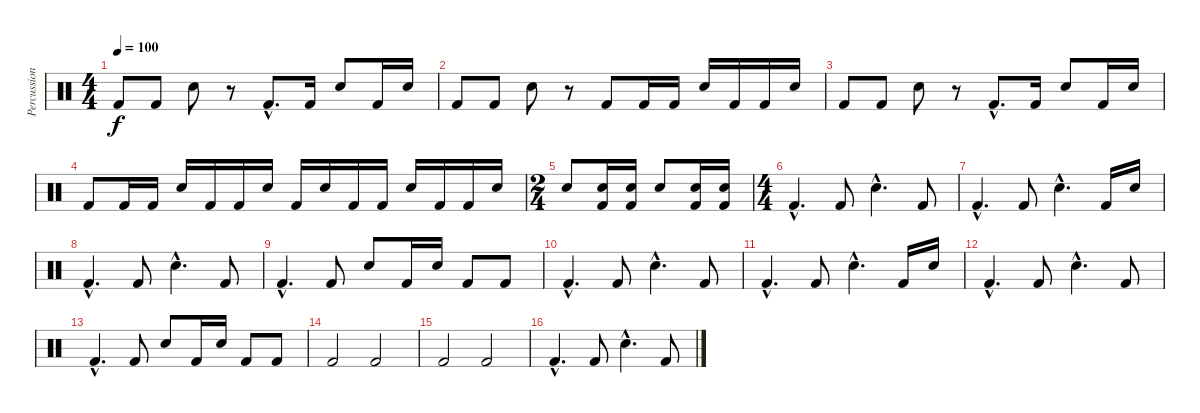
\track ("Percussioni" "Percussion") {instrument percussion}
\staff {score}
\articulation defaults
\ts (4 4)
\tempo 100
\clef neutral
\ks c "Kick (hit) 2".8{dy f} "Kick (hit) 2".8 "Snare (hit) 2".8
r.8 "Kick (hit) 2"{hac}.8{d} "Kick (hit) 2".16 "Snare (hit) 2".8 "Kick (hit) 2".16 "Snare (hit) 2".16 |
"Kick (hit) 2".8 "Kick (hit) 2".8 "Snare (hit) 2".8 r.8 "Kick (hit) 2".8 "Kick (hit) 2".16 "Kick (hit) 2".16 "Snare (hit) 2".16 "Kick (hit) 2".16 "Kick (hit) 2".16 "Snare (hit) 2".16 |
"Kick (hit) 2".8 "Kick (hit) 2".8 "Snare (hit) 2".8 r.8 "Kick (hit) 2"{hac}.8{d} "Kick (hit) 2".16 "Snare (hit) 2".8 "Kick (hit) 2".16 "Snare (hit) 2".16 |
"Kick (hit) 2".8 "Kick (hit) 2".16 "Kick (hit) 2".16 "Snare (hit) 2".16 "Kick (hit) 2".16 "Kick (hit) 2".16 "Snare (hit) 2".16 "Kick (hit) 2".16 "Snare (hit) 2".16 "Kick (hit) 2".16 "Kick (hit) 2".16 "Snare (hit) 2".16 "Kick (hit) 2".16 "Kick (hit) 2".16 "Snare (hit) 2".16 |
\ts (2 4)
"Snare (hit) 2".8 ("Snare (hit) 2" "Kick (hit) 2").16 ("Snare (hit) 2" "Kick (hit) 2").16 "Snare (hit) 2".8 ("Snare (hit) 2" "Kick (hit) 2").16 ("Snare (hit) 2" "Kick (hit) 2").16 |
\ts (4 4)
"Kick (hit) 2"{hac}.4{d} "Kick (hit) 2".8 "Snare (hit) 2"{hac}.4{d} "Kick (hit) 2".8 |
"Kick (hit) 2"{hac}.4{d} "Kick (hit) 2".8 "Snare (hit) 2"{hac}.4{d} "Kick (hit) 2".16 "Snare (hit) 2".16 |
"Kick (hit) 2"{hac}.4{d} "Kick (hit) 2".8 "Snare (hit) 2"{hac}.4{d} "Kick (hit) 2".8 |
"Kick (hit) 2"{hac}.4{d} "Kick (hit) 2".8 "Snare (hit) 2".8 "Kick (hit) 2".16 "Snare (hit) 2".16 "Kick (hit) 2".8 "Kick (hit) 2".8 |
"Kick (hit) 2"{hac}.4{d} "Kick (hit) 2".8 "Snare (hit) 2"{hac}.4{d} "Kick (hit) 2".8 |
"Kick (hit) 2"{hac}.4{d} "Kick (hit) 2".8 "Snare (hit) 2"{hac}.4{d} "Kick (hit) 2".16 "Snare (hit) 2".16 |
"Kick (hit) 2"{hac}.4{d} "Kick (hit) 2".8 "Snare (hit) 2"{hac}.4{d} "Kick (hit) 2".8 |
"Kick (hit) 2"{hac}.4{d} "Kick (hit) 2".8 "Snare (hit) 2".8 "Kick (hit) 2".16 "Snare (hit) 2".16 "Kick (hit) 2".8 "Kick (hit) 2".8 |
"Kick (hit) 2".2 "Kick (hit) 2".2 |
"Kick (hit) 2".2 "Kick (hit) 2".2 |
"Kick (hit) 2"{hac}.4{d} "Kick (hit) 2".8 "Snare (hit) 2"{hac}.4{d} "Kick (hit) 2".8
